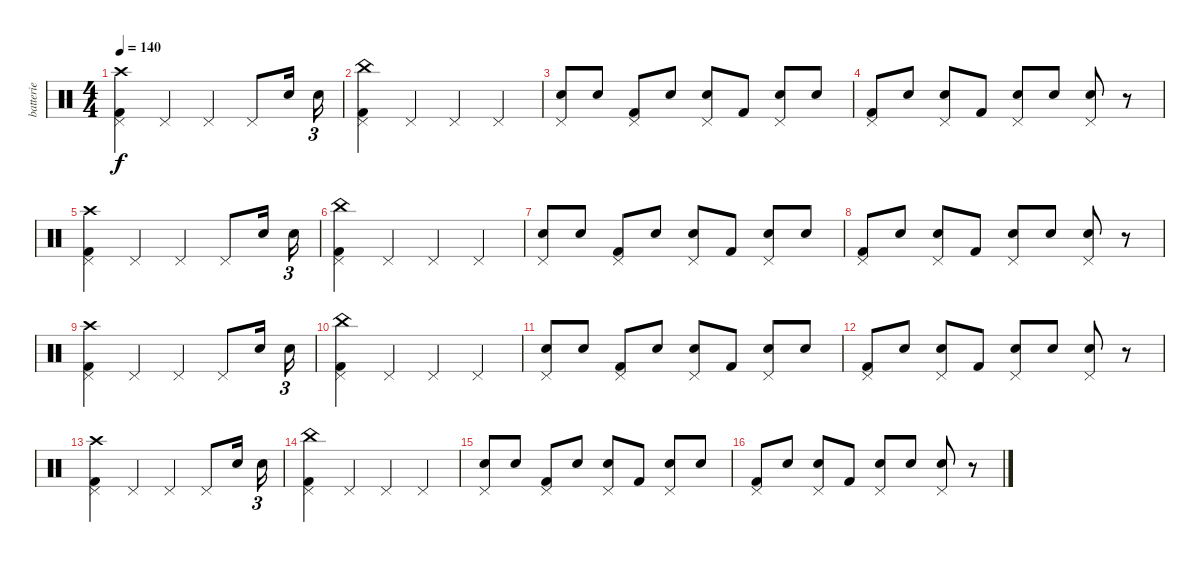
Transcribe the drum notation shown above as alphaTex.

\track ("batterie" "batterie") {instrument percussion}
\staff {score}
\articulation defaults
\ts (4 4)
\tempo 140
\clef neutral
\ks c
("Crash high (hit)" "Kick (hit) 2" "Pedal Hi-Hat (hit)").4{dy f} "Pedal Hi-Hat (hit)".4 "Pedal Hi-Hat (hit)".4 "Pedal Hi-Hat (hit)".8 "Snare (hit) 2".16 "Snare (hit) 2".16{tu (3 2)} |
("China (hit)" "Kick (hit) 2" "Pedal Hi-Hat (hit)").4 "Pedal Hi-Hat (hit)".4 "Pedal Hi-Hat (hit)".4 "Pedal Hi-Hat (hit)".4 |
("Snare (hit) 2" "Pedal Hi-Hat (hit)").8 "Snare (hit) 2".8 ("Kick (hit) 2" "Pedal Hi-Hat (hit)").8 "Snare (hit) 2".8 ("Snare (hit) 2" "Pedal Hi-Hat (hit)").8 "Kick (hit) 2".8 ("Snare (hit) 2" "Pedal Hi-Hat (hit)").8 "Snare (hit) 2".8 |
("Kick (hit) 2" "Pedal Hi-Hat (hit)").8 "Snare (hit) 2".8 ("Snare (hit) 2" "Pedal Hi-Hat (hit)").8 "Kick (hit) 2".8 ("Snare (hit) 2" "Pedal Hi-Hat (hit)").8 "Snare (hit) 2".8 ("Snare (hit) 2" "Pedal Hi-Hat (hit)").8 r.8 |
("Crash high (hit)" "Kick (hit) 2" "Pedal Hi-Hat (hit)").4 "Pedal Hi-Hat (hit)".4 "Pedal Hi-Hat (hit)".4 "Pedal Hi-Hat (hit)".8 "Snare (hit) 2".16 "Snare (hit) 2".16{tu (3 2)} |
("China (hit)" "Kick (hit) 2" "Pedal Hi-Hat (hit)").4 "Pedal Hi-Hat (hit)".4 "Pedal Hi-Hat (hit)".4 "Pedal Hi-Hat (hit)".4 |
("Snare (hit) 2" "Pedal Hi-Hat (hit)").8 "Snare (hit) 2".8 ("Kick (hit) 2" "Pedal Hi-Hat (hit)").8 "Snare (hit) 2".8 ("Snare (hit) 2" "Pedal Hi-Hat (hit)").8 "Kick (hit) 2".8 ("Snare (hit) 2" "Pedal Hi-Hat (hit)").8 "Snare (hit) 2".8 |
("Kick (hit) 2" "Pedal Hi-Hat (hit)").8 "Snare (hit) 2".8 ("Snare (hit) 2" "Pedal Hi-Hat (hit)").8 "Kick (hit) 2".8 ("Snare (hit) 2" "Pedal Hi-Hat (hit)").8 "Snare (hit) 2".8 ("Snare (hit) 2" "Pedal Hi-Hat (hit)").8 r.8 |
("Crash high (hit)" "Kick (hit) 2" "Pedal Hi-Hat (hit)").4 "Pedal Hi-Hat (hit)".4 "Pedal Hi-Hat (hit)".4 "Pedal Hi-Hat (hit)".8 "Snare (hit) 2".16 "Snare (hit) 2".16{tu (3 2)} |
("China (hit)" "Kick (hit) 2" "Pedal Hi-Hat (hit)").4 "Pedal Hi-Hat (hit)".4 "Pedal Hi-Hat (hit)".4 "Pedal Hi-Hat (hit)".4 |
("Snare (hit) 2" "Pedal Hi-Hat (hit)").8 "Snare (hit) 2".8 ("Kick (hit) 2" "Pedal Hi-Hat (hit)").8 "Snare (hit) 2".8 ("Snare (hit) 2" "Pedal Hi-Hat (hit)").8 "Kick (hit) 2".8 ("Snare (hit) 2" "Pedal Hi-Hat (hit)").8 "Snare (hit) 2".8 |
("Kick (hit) 2" "Pedal Hi-Hat (hit)").8 "Snare (hit) 2".8 ("Snare (hit) 2" "Pedal Hi-Hat (hit)").8 "Kick (hit) 2".8 ("Snare (hit) 2" "Pedal Hi-Hat (hit)").8 "Snare (hit) 2".8 ("Snare (hit) 2" "Pedal Hi-Hat (hit)").8 r.8 |
("Crash high (hit)" "Kick (hit) 2" "Pedal Hi-Hat (hit)").4 "Pedal Hi-Hat (hit)".4 "Pedal Hi-Hat (hit)".4 "Pedal Hi-Hat (hit)".8 "Snare (hit) 2".16 "Snare (hit) 2".16{tu (3 2)} |
("China (hit)" "Kick (hit) 2" "Pedal Hi-Hat (hit)").4 "Pedal Hi-Hat (hit)".4 "Pedal Hi-Hat (hit)".4 "Pedal Hi-Hat (hit)".4 |
("Snare (hit) 2" "Pedal Hi-Hat (hit)").8 "Snare (hit) 2".8 ("Kick (hit) 2" "Pedal Hi-Hat (hit)").8 "Snare (hit) 2".8 ("Snare (hit) 2" "Pedal Hi-Hat (hit)").8 "Kick (hit) 2".8 ("Snare (hit) 2" "Pedal Hi-Hat (hit)").8 "Snare (hit) 2".8 |
("Kick (hit) 2" "Pedal Hi-Hat (hit)").8 "Snare (hit) 2".8 ("Snare (hit) 2" "Pedal Hi-Hat (hit)").8 "Kick (hit) 2".8 ("Snare (hit) 2" "Pedal Hi-Hat (hit)").8 "Snare (hit) 2".8 ("Snare (hit) 2" "Pedal Hi-Hat (hit)").8 r.8
